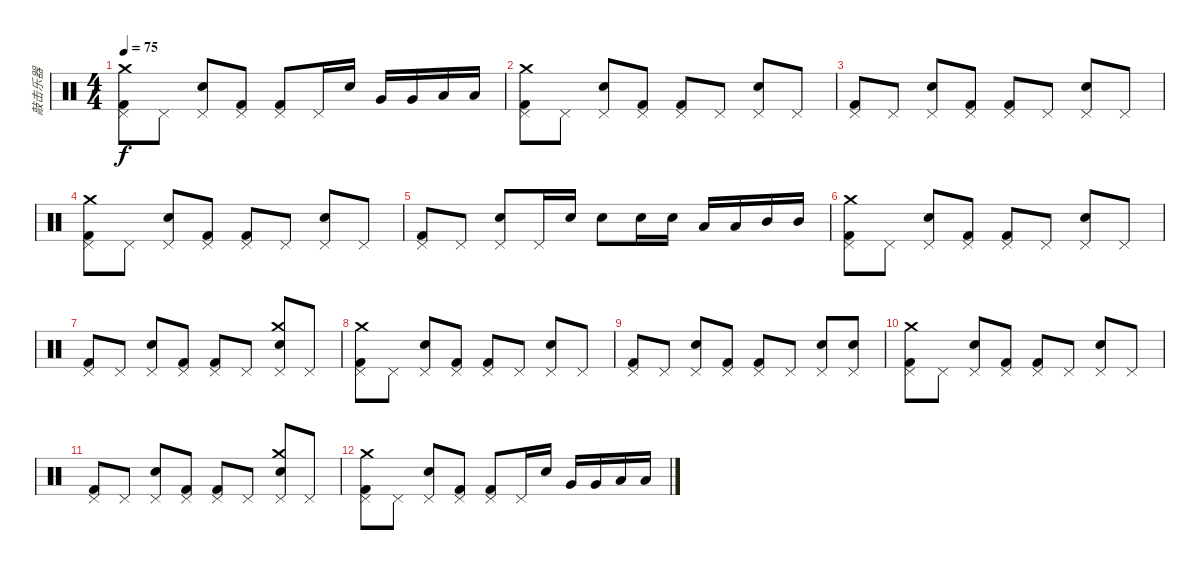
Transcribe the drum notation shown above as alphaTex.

\track ("敲击乐器" "敲击乐器") {instrument percussion}
\staff {score}
\articulation defaults
\ts (4 4)
\tempo 75
\clef neutral
\ks c
("Pedal Hi-Hat (hit)" "Kick (hit) 2" "Crash medium (hit)").8{dy f} "Pedal Hi-Hat (hit)".8 ("Pedal Hi-Hat (hit)" "Electric Snare (hit)").8 ("Pedal Hi-Hat (hit)" "Kick (hit) 2").8 ("Pedal Hi-Hat (hit)" "Kick (hit) 2").8 "Pedal Hi-Hat (hit)".16 "Electric Snare (hit)".16 "Very Low Tom (hit)".16 "Very Low Tom (hit)".16 "Low Tom (hit)".16 "Low Tom (hit)".16 |
("Pedal Hi-Hat (hit)" "Kick (hit) 2" "Crash medium (hit)").8 "Pedal Hi-Hat (hit)".8 ("Pedal Hi-Hat (hit)" "Electric Snare (hit)").8 ("Pedal Hi-Hat (hit)" "Kick (hit) 2").8 ("Pedal Hi-Hat (hit)" "Kick (hit) 2").8 "Pedal Hi-Hat (hit)".8 ("Pedal Hi-Hat (hit)" "Electric Snare (hit)").8 "Pedal Hi-Hat (hit)".8 |
("Pedal Hi-Hat (hit)" "Kick (hit) 2").8 "Pedal Hi-Hat (hit)".8 ("Pedal Hi-Hat (hit)" "Electric Snare (hit)").8 ("Pedal Hi-Hat (hit)" "Kick (hit) 2").8 ("Pedal Hi-Hat (hit)" "Kick (hit) 2").8 "Pedal Hi-Hat (hit)".8 ("Pedal Hi-Hat (hit)" "Electric Snare (hit)").8 "Pedal Hi-Hat (hit)".8 |
("Pedal Hi-Hat (hit)" "Kick (hit) 2" "Crash medium (hit)").8 "Pedal Hi-Hat (hit)".8 ("Pedal Hi-Hat (hit)" "Electric Snare (hit)").8 ("Pedal Hi-Hat (hit)" "Kick (hit) 2").8 ("Pedal Hi-Hat (hit)" "Kick (hit) 2").8 "Pedal Hi-Hat (hit)".8 ("Pedal Hi-Hat (hit)" "Electric Snare (hit)").8 "Pedal Hi-Hat (hit)".8 |
("Pedal Hi-Hat (hit)" "Kick (hit) 2").8 "Pedal Hi-Hat (hit)".8 ("Pedal Hi-Hat (hit)" "Electric Snare (hit)").8 "Pedal Hi-Hat (hit)".16 "Electric Snare (hit)".16 "Electric Snare (hit)".8 "Electric Snare (hit)".16 "Electric Snare (hit)".16 "Low Tom (hit)".16 "Low Tom (hit)".16 "Mid Tom (hit)".16 "Mid Tom (hit)".16 |
("Pedal Hi-Hat (hit)" "Kick (hit) 2" "Crash medium (hit)").8 "Pedal Hi-Hat (hit)".8 ("Pedal Hi-Hat (hit)" "Electric Snare (hit)").8 ("Pedal Hi-Hat (hit)" "Kick (hit) 2").8 ("Pedal Hi-Hat (hit)" "Kick (hit) 2").8 "Pedal Hi-Hat (hit)".8 ("Pedal Hi-Hat (hit)" "Electric Snare (hit)").8 "Pedal Hi-Hat (hit)".8 |
("Pedal Hi-Hat (hit)" "Kick (hit) 2").8 "Pedal Hi-Hat (hit)".8 ("Pedal Hi-Hat (hit)" "Electric Snare (hit)").8 ("Pedal Hi-Hat (hit)" "Kick (hit) 2").8 ("Pedal Hi-Hat (hit)" "Kick (hit) 2").8 "Pedal Hi-Hat (hit)".8 ("Pedal Hi-Hat (hit)" "Electric Snare (hit)" "Crash medium (hit)").8 "Pedal Hi-Hat (hit)".8 |
("Pedal Hi-Hat (hit)" "Kick (hit) 2" "Crash medium (hit)").8 "Pedal Hi-Hat (hit)".8 ("Pedal Hi-Hat (hit)" "Electric Snare (hit)").8 ("Pedal Hi-Hat (hit)" "Kick (hit) 2").8 ("Pedal Hi-Hat (hit)" "Kick (hit) 2").8 "Pedal Hi-Hat (hit)".8 ("Pedal Hi-Hat (hit)" "Electric Snare (hit)").8 "Pedal Hi-Hat (hit)".8 |
("Pedal Hi-Hat (hit)" "Kick (hit) 2").8 "Pedal Hi-Hat (hit)".8 ("Pedal Hi-Hat (hit)" "Electric Snare (hit)").8 ("Pedal Hi-Hat (hit)" "Kick (hit) 2").8 ("Pedal Hi-Hat (hit)" "Kick (hit) 2").8 "Pedal Hi-Hat (hit)".8 ("Pedal Hi-Hat (hit)" "Electric Snare (hit)").8 ("Pedal Hi-Hat (hit)" "Electric Snare (hit)").8 |
("Pedal Hi-Hat (hit)" "Kick (hit) 2" "Crash medium (hit)").8 "Pedal Hi-Hat (hit)".8 ("Pedal Hi-Hat (hit)" "Electric Snare (hit)").8 ("Pedal Hi-Hat (hit)" "Kick (hit) 2").8 ("Pedal Hi-Hat (hit)" "Kick (hit) 2").8 "Pedal Hi-Hat (hit)".8 ("Pedal Hi-Hat (hit)" "Electric Snare (hit)").8 "Pedal Hi-Hat (hit)".8 |
("Pedal Hi-Hat (hit)" "Kick (hit) 2").8 "Pedal Hi-Hat (hit)".8 ("Pedal Hi-Hat (hit)" "Electric Snare (hit)").8 ("Pedal Hi-Hat (hit)" "Kick (hit) 2").8 ("Pedal Hi-Hat (hit)" "Kick (hit) 2").8 "Pedal Hi-Hat (hit)".8 ("Pedal Hi-Hat (hit)" "Electric Snare (hit)" "Crash medium (hit)").8 "Pedal Hi-Hat (hit)".8 |
("Pedal Hi-Hat (hit)" "Kick (hit) 2" "Crash medium (hit)").8 "Pedal Hi-Hat (hit)".8 ("Pedal Hi-Hat (hit)" "Electric Snare (hit)").8 ("Pedal Hi-Hat (hit)" "Kick (hit) 2").8 ("Pedal Hi-Hat (hit)" "Kick (hit) 2").8 "Pedal Hi-Hat (hit)".16 "Electric Snare (hit)".16 "Very Low Tom (hit)".16 "Very Low Tom (hit)".16 "Low Tom (hit)".16 "Low Tom (hit)".16
